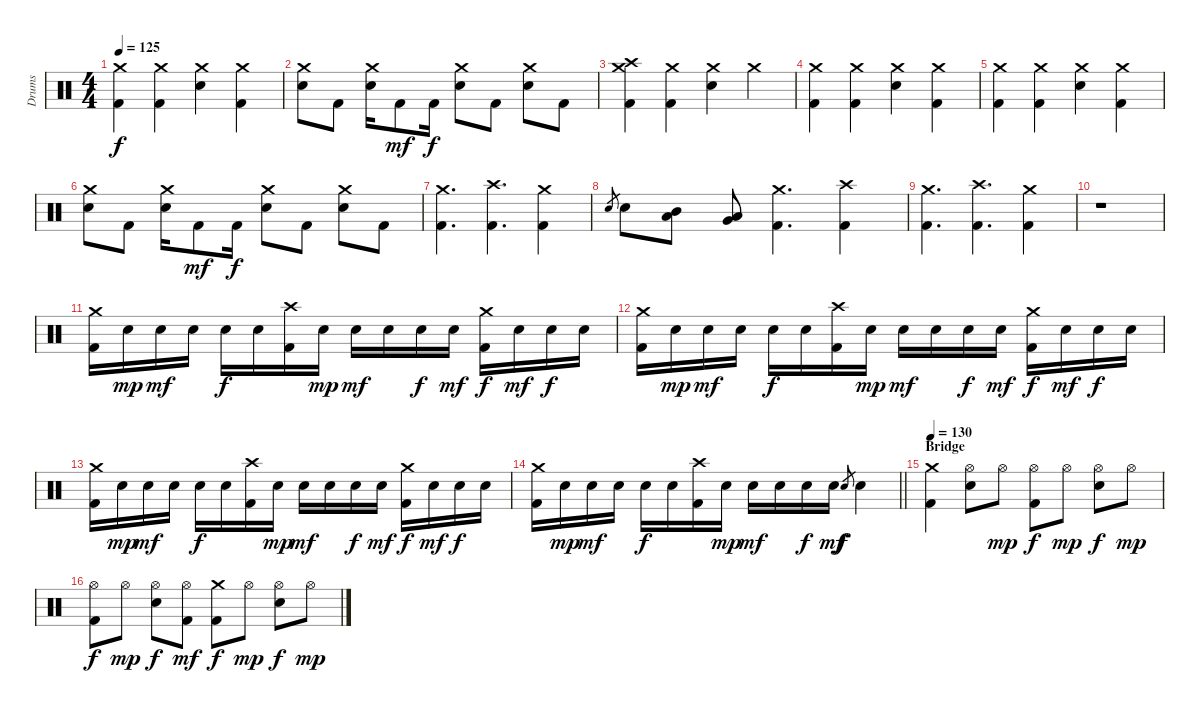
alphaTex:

\track ("Drums" "Drums") {instrument percussion}
\staff {score}
\articulation defaults
\ts (4 4)
\tempo 125
\clef neutral
\ks c
("Crash medium (hit)" "Kick (hit) 2").4{dy f} ("Crash medium (hit)" "Kick (hit) 2").4 ("Crash medium (hit)" "Electric Snare (hit)").4 ("Crash medium (hit)" "Kick (hit) 2").4 |
("Crash medium (hit)" "Electric Snare (hit)").8 "Kick (hit) 2".8 ("Crash medium (hit)" "Electric Snare (hit)").16 "Kick (hit) 2".8{dy mf} "Kick (hit) 2".16{dy f} ("Crash medium (hit)" "Electric Snare (hit)").8 "Kick (hit) 2".8 ("Crash medium (hit)" "Electric Snare (hit)").8 "Kick (hit) 2".8 |
("Crash medium (hit)" "Crash high (hit)" "Kick (hit) 2").4 ("Crash medium (hit)" "Kick (hit) 2").4 ("Crash medium (hit)" "Electric Snare (hit)").4 "Crash medium (hit)".4 |
("Crash medium (hit)" "Kick (hit) 2").4 ("Crash medium (hit)" "Kick (hit) 2").4 ("Crash medium (hit)" "Electric Snare (hit)").4 ("Crash medium (hit)" "Kick (hit) 2").4 |
("Crash medium (hit)" "Kick (hit) 2").4 ("Crash medium (hit)" "Kick (hit) 2").4 ("Crash medium (hit)" "Electric Snare (hit)").4 ("Crash medium (hit)" "Kick (hit) 2").4 |
("Crash medium (hit)" "Electric Snare (hit)").8 "Kick (hit) 2".8 ("Crash medium (hit)" "Electric Snare (hit)").16 "Kick (hit) 2".8{dy mf} "Kick (hit) 2".16{dy f} ("Crash medium (hit)" "Electric Snare (hit)").8 "Kick (hit) 2".8 ("Crash medium (hit)" "Electric Snare (hit)").8 "Kick (hit) 2".8 |
("Crash medium (hit)" "Kick (hit) 2").4{d} ("Crash high (hit)" "Kick (hit) 2").4{d} ("Crash medium (hit)" "Kick (hit) 2").4 |
"Electric Snare (hit)".8{gr} "Electric Snare (hit)".8 ("Mid Tom (hit)" "Low Tom (hit)").8 ("Low Tom (hit)" "Very Low Tom (hit)").8 ("Crash medium (hit)" "Kick (hit) 2").4{d} ("Crash high (hit)" "Kick (hit) 2").4 |
("Crash medium (hit)" "Kick (hit) 2").4{d} ("Crash high (hit)" "Kick (hit) 2").4{d} ("Crash medium (hit)" "Kick (hit) 2").4 |
r.1 |
("Crash medium (hit)" "Kick (hit) 2").16 "Electric Snare (hit)".16{dy mp} "Electric Snare (hit)".16{dy mf} "Electric Snare (hit)".16 "Electric Snare (hit)".16{dy f} "Electric Snare (hit)".16 ("Crash high (hit)" "Kick (hit) 2").16 "Electric Snare (hit)".16{dy mp} "Electric Snare (hit)".16{dy mf} "Electric Snare (hit)".16 "Electric Snare (hit)".16{dy f} "Electric Snare (hit)".16{dy mf} ("Crash medium (hit)" "Kick (hit) 2").16{dy f} "Electric Snare (hit)".16{dy mf} "Electric Snare (hit)".16{dy f} "Electric Snare (hit)".16 |
("Crash medium (hit)" "Kick (hit) 2").16 "Electric Snare (hit)".16{dy mp} "Electric Snare (hit)".16{dy mf} "Electric Snare (hit)".16 "Electric Snare (hit)".16{dy f} "Electric Snare (hit)".16 ("Crash high (hit)" "Kick (hit) 2").16 "Electric Snare (hit)".16{dy mp} "Electric Snare (hit)".16{dy mf} "Electric Snare (hit)".16 "Electric Snare (hit)".16{dy f} "Electric Snare (hit)".16{dy mf} ("Crash medium (hit)" "Kick (hit) 2").16{dy f} "Electric Snare (hit)".16{dy mf} "Electric Snare (hit)".16{dy f} "Electric Snare (hit)".16 |
("Crash medium (hit)" "Kick (hit) 2").16 "Electric Snare (hit)".16{dy mp} "Electric Snare (hit)".16{dy mf} "Electric Snare (hit)".16 "Electric Snare (hit)".16{dy f} "Electric Snare (hit)".16 ("Crash high (hit)" "Kick (hit) 2").16 "Electric Snare (hit)".16{dy mp} "Electric Snare (hit)".16{dy mf} "Electric Snare (hit)".16 "Electric Snare (hit)".16{dy f} "Electric Snare (hit)".16{dy mf} ("Crash medium (hit)" "Kick (hit) 2").16{dy f} "Electric Snare (hit)".16{dy mf} "Electric Snare (hit)".16{dy f} "Electric Snare (hit)".16 |
\barLineRight lightlight
("Crash medium (hit)" "Kick (hit) 2").16 "Electric Snare (hit)".16{dy mp} "Electric Snare (hit)".16{dy mf} "Electric Snare (hit)".16 "Electric Snare (hit)".16{dy f} "Electric Snare (hit)".16 ("Crash high (hit)" "Kick (hit) 2").16 "Electric Snare (hit)".16{dy mp} "Electric Snare (hit)".16{dy mf} "Electric Snare (hit)".16 "Electric Snare (hit)".16{dy f} "Electric Snare (hit)".16{dy mf} "Electric Snare (hit)".8{gr dy f} "Electric Snare (hit)".4 |
\section ("" "Bridge")
\tempo 130
("Crash medium (hit)" "Kick (hit) 2").4 ("Hi-Hat (open)" "Electric Snare (hit)").8 "Hi-Hat (open)".8{dy mp} ("Hi-Hat (open)" "Kick (hit) 2").8{dy f} "Hi-Hat (open)".8{dy mp} ("Hi-Hat (open)" "Electric Snare (hit)").8{dy f} "Hi-Hat (open)".8{dy mp} |
("Hi-Hat (open)" "Kick (hit) 2").8{dy f} "Hi-Hat (open)".8{dy mp} ("Hi-Hat (open)" "Electric Snare (hit)").8{dy f} ("Hi-Hat (open)" "Kick (hit) 2").8{dy mf} ("Crash medium (hit)" "Kick (hit) 2").8{dy f} "Hi-Hat (open)".8{dy mp} ("Hi-Hat (open)" "Electric Snare (hit)").8{dy f} "Hi-Hat (open)".8{dy mp}
